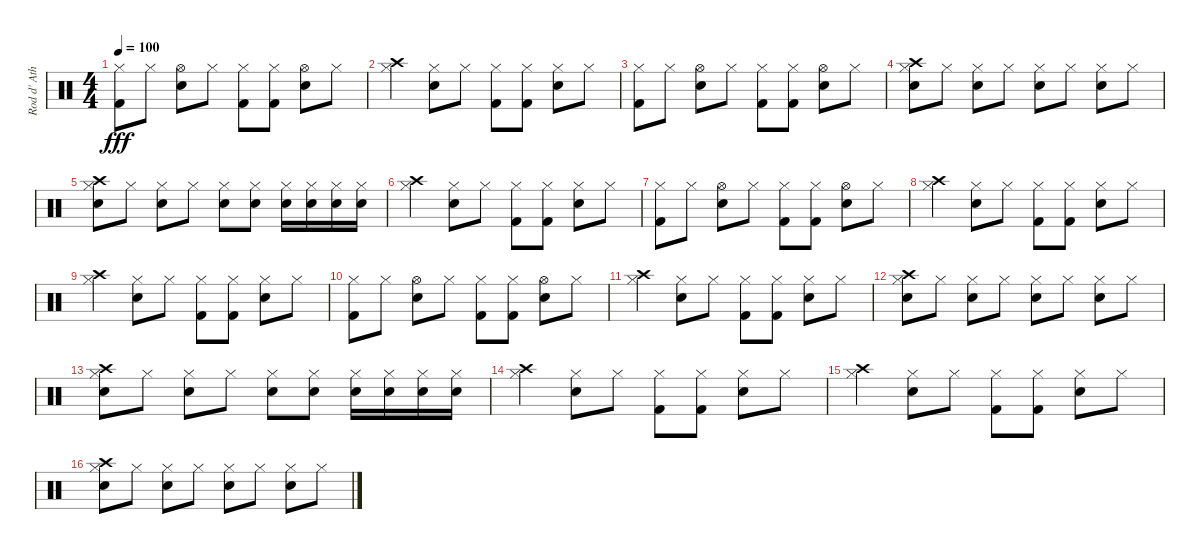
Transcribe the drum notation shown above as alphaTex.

\track ("Rod d' Ath" "Rod d' Ath") {instrument percussion}
\staff {score}
\articulation defaults
\ts (4 4)
\tempo 100
\clef neutral
\ks c
("Kick (hit) 2" "Hi-Hat (closed)").8{dy fff} "Hi-Hat (closed)".8 ("Hi-Hat (open)" "Snare (hit) 2").8 "Hi-Hat (closed)".8 ("Kick (hit) 2" "Hi-Hat (closed)").8 ("Kick (hit) 2" "Hi-Hat (closed)").8 ("Snare (hit) 2" "Hi-Hat (open)").8 "Hi-Hat (closed)".8 |
("Crash high (hit)" "Hi-Hat (closed)").4 ("Snare (hit) 2" "Hi-Hat (closed)").8 "Hi-Hat (closed)".8 ("Kick (hit) 2" "Hi-Hat (closed)").8 ("Kick (hit) 2" "Hi-Hat (closed)").8 ("Snare (hit) 2" "Hi-Hat (closed)").8 "Hi-Hat (closed)".8 |
("Kick (hit) 2" "Hi-Hat (closed)").8 "Hi-Hat (closed)".8 ("Hi-Hat (open)" "Snare (hit) 2").8 "Hi-Hat (closed)".8 ("Kick (hit) 2" "Hi-Hat (closed)").8 ("Kick (hit) 2" "Hi-Hat (closed)").8 ("Snare (hit) 2" "Hi-Hat (open)").8 "Hi-Hat (closed)".8 |
("Snare (hit) 2" "Hi-Hat (closed)" "Crash high (hit)").8{volume 16} "Hi-Hat (closed)".8 ("Snare (hit) 2" "Hi-Hat (closed)").8 "Hi-Hat (closed)".8 ("Snare (hit) 2" "Hi-Hat (closed)").8 "Hi-Hat (closed)".8 ("Snare (hit) 2" "Hi-Hat (closed)").8 "Hi-Hat (closed)".8 |
("Snare (hit) 2" "Hi-Hat (closed)" "Crash high (hit)").8 "Hi-Hat (closed)".8 ("Snare (hit) 2" "Hi-Hat (closed)").8 "Hi-Hat (closed)".8 ("Snare (hit) 2" "Hi-Hat (closed)").8 ("Snare (hit) 2" "Hi-Hat (closed)").8 ("Snare (hit) 2" "Hi-Hat (closed)").16 ("Snare (hit) 2" "Hi-Hat (closed)").16 ("Snare (hit) 2" "Hi-Hat (closed)").16 ("Snare (hit) 2" "Hi-Hat (closed)").16 |
("Crash high (hit)" "Hi-Hat (closed)").4 ("Snare (hit) 2" "Hi-Hat (closed)").8 "Hi-Hat (closed)".8 ("Kick (hit) 2" "Hi-Hat (closed)").8 ("Kick (hit) 2" "Hi-Hat (closed)").8 ("Snare (hit) 2" "Hi-Hat (closed)").8 "Hi-Hat (closed)".8 |
("Kick (hit) 2" "Hi-Hat (closed)").8 "Hi-Hat (closed)".8 ("Hi-Hat (open)" "Snare (hit) 2").8 "Hi-Hat (closed)".8 ("Kick (hit) 2" "Hi-Hat (closed)").8 ("Kick (hit) 2" "Hi-Hat (closed)").8 ("Snare (hit) 2" "Hi-Hat (open)").8 "Hi-Hat (closed)".8 |
("Crash high (hit)" "Hi-Hat (closed)").4 ("Snare (hit) 2" "Hi-Hat (closed)").8 "Hi-Hat (closed)".8 ("Kick (hit) 2" "Hi-Hat (closed)").8 ("Kick (hit) 2" "Hi-Hat (closed)").8 ("Snare (hit) 2" "Hi-Hat (closed)").8 "Hi-Hat (closed)".8 |
("Crash high (hit)" "Hi-Hat (closed)").4 ("Snare (hit) 2" "Hi-Hat (closed)").8 "Hi-Hat (closed)".8 ("Kick (hit) 2" "Hi-Hat (closed)").8 ("Kick (hit) 2" "Hi-Hat (closed)").8 ("Snare (hit) 2" "Hi-Hat (closed)").8 "Hi-Hat (closed)".8 |
("Kick (hit) 2" "Hi-Hat (closed)").8 "Hi-Hat (closed)".8 ("Hi-Hat (open)" "Snare (hit) 2").8 "Hi-Hat (closed)".8 ("Kick (hit) 2" "Hi-Hat (closed)").8 ("Kick (hit) 2" "Hi-Hat (closed)").8 ("Snare (hit) 2" "Hi-Hat (open)").8 "Hi-Hat (closed)".8 |
("Crash high (hit)" "Hi-Hat (closed)").4 ("Snare (hit) 2" "Hi-Hat (closed)").8 "Hi-Hat (closed)".8 ("Kick (hit) 2" "Hi-Hat (closed)").8 ("Kick (hit) 2" "Hi-Hat (closed)").8 ("Snare (hit) 2" "Hi-Hat (closed)").8 "Hi-Hat (closed)".8 |
("Snare (hit) 2" "Hi-Hat (closed)" "Crash high (hit)").8{volume 16} "Hi-Hat (closed)".8 ("Snare (hit) 2" "Hi-Hat (closed)").8 "Hi-Hat (closed)".8 ("Snare (hit) 2" "Hi-Hat (closed)").8 "Hi-Hat (closed)".8 ("Snare (hit) 2" "Hi-Hat (closed)").8 "Hi-Hat (closed)".8 |
("Snare (hit) 2" "Hi-Hat (closed)" "Crash high (hit)").8 "Hi-Hat (closed)".8 ("Snare (hit) 2" "Hi-Hat (closed)").8 "Hi-Hat (closed)".8 ("Snare (hit) 2" "Hi-Hat (closed)").8 ("Snare (hit) 2" "Hi-Hat (closed)").8 ("Snare (hit) 2" "Hi-Hat (closed)").16 ("Snare (hit) 2" "Hi-Hat (closed)").16 ("Snare (hit) 2" "Hi-Hat (closed)").16 ("Snare (hit) 2" "Hi-Hat (closed)").16 |
("Crash high (hit)" "Hi-Hat (closed)").4 ("Snare (hit) 2" "Hi-Hat (closed)").8 "Hi-Hat (closed)".8 ("Kick (hit) 2" "Hi-Hat (closed)").8 ("Kick (hit) 2" "Hi-Hat (closed)").8 ("Snare (hit) 2" "Hi-Hat (closed)").8 "Hi-Hat (closed)".8 |
("Crash high (hit)" "Hi-Hat (closed)").4 ("Snare (hit) 2" "Hi-Hat (closed)").8 "Hi-Hat (closed)".8 ("Kick (hit) 2" "Hi-Hat (closed)").8 ("Kick (hit) 2" "Hi-Hat (closed)").8 ("Snare (hit) 2" "Hi-Hat (closed)").8 "Hi-Hat (closed)".8 |
("Snare (hit) 2" "Hi-Hat (closed)" "Crash high (hit)").8{volume 16} "Hi-Hat (closed)".8 ("Snare (hit) 2" "Hi-Hat (closed)").8 "Hi-Hat (closed)".8 ("Snare (hit) 2" "Hi-Hat (closed)").8 "Hi-Hat (closed)".8 ("Snare (hit) 2" "Hi-Hat (closed)").8 "Hi-Hat (closed)".8
